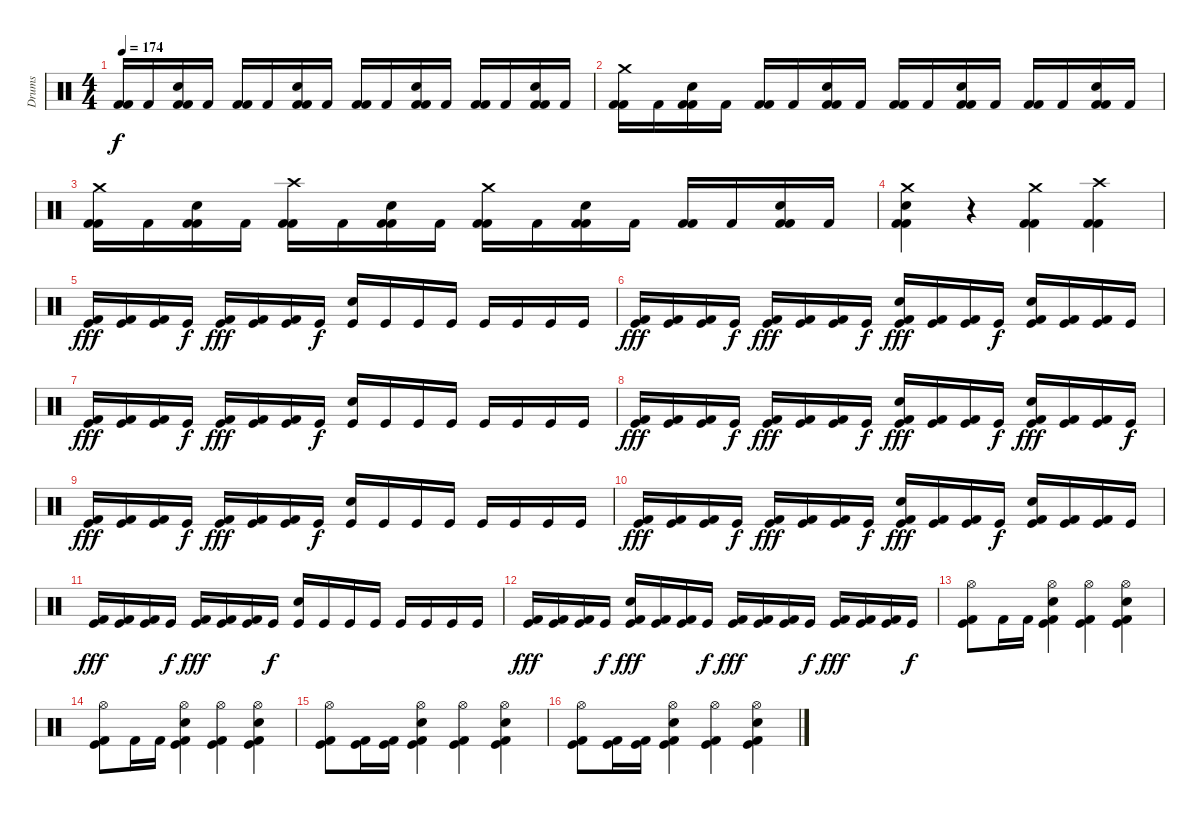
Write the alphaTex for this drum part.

\track ("Drums" "Drums") {instrument percussion}
\staff {score}
\articulation defaults
\ts (4 4)
\tempo 174
\clef neutral
\ks c
("Kick (hit) 2" "Kick (hit) 2").16{dy f} "Kick (hit) 2".16 ("Kick (hit) 2" "Kick (hit) 2" "Electric Snare (hit)").16 "Kick (hit) 2".16 ("Kick (hit) 2" "Kick (hit) 2").16 "Kick (hit) 2".16 ("Kick (hit) 2" "Kick (hit) 2" "Electric Snare (hit)").16 "Kick (hit) 2".16 ("Kick (hit) 2" "Kick (hit) 2").16 "Kick (hit) 2".16 ("Kick (hit) 2" "Kick (hit) 2" "Electric Snare (hit)").16 "Kick (hit) 2".16 ("Kick (hit) 2" "Kick (hit) 2").16 "Kick (hit) 2".16 ("Kick (hit) 2" "Kick (hit) 2" "Electric Snare (hit)").16 "Kick (hit) 2".16 |
("Kick (hit) 2" "Kick (hit) 2" "Crash medium (hit)").16 "Kick (hit) 2".16 ("Kick (hit) 2" "Kick (hit) 2" "Electric Snare (hit)").16 "Kick (hit) 2".16 ("Kick (hit) 2" "Kick (hit) 2").16 "Kick (hit) 2".16 ("Kick (hit) 2" "Kick (hit) 2" "Electric Snare (hit)").16 "Kick (hit) 2".16 ("Kick (hit) 2" "Kick (hit) 2").16 "Kick (hit) 2".16 ("Kick (hit) 2" "Kick (hit) 2" "Electric Snare (hit)").16 "Kick (hit) 2".16 ("Kick (hit) 2" "Kick (hit) 2").16 "Kick (hit) 2".16 ("Kick (hit) 2" "Kick (hit) 2" "Electric Snare (hit)").16 "Kick (hit) 2".16 |
("Kick (hit) 2" "Kick (hit) 2" "Crash medium (hit)").16 "Kick (hit) 2".16 ("Kick (hit) 2" "Kick (hit) 2" "Electric Snare (hit)").16 "Kick (hit) 2".16 ("Kick (hit) 2" "Kick (hit) 2" "Crash high (hit)").16 "Kick (hit) 2".16 ("Kick (hit) 2" "Kick (hit) 2" "Electric Snare (hit)").16 "Kick (hit) 2".16 ("Kick (hit) 2" "Kick (hit) 2" "Crash medium (hit)").16 "Kick (hit) 2".16 ("Kick (hit) 2" "Kick (hit) 2" "Electric Snare (hit)").16 "Kick (hit) 2".16 ("Kick (hit) 2" "Kick (hit) 2").16 "Kick (hit) 2".16 ("Kick (hit) 2" "Kick (hit) 2" "Electric Snare (hit)").16 "Kick (hit) 2".16 |
("Kick (hit) 2" "Kick (hit) 2" "Electric Snare (hit)" "Crash medium (hit)").4 r.4 ("Kick (hit) 2" "Kick (hit) 2" "Crash medium (hit)").4 ("Kick (hit) 2" "Kick (hit) 2" "Crash high (hit)").4 |
("Kick (hit)" "Kick (hit) 2").16{dy fff} ("Kick (hit)" "Kick (hit) 2").16 ("Kick (hit)" "Kick (hit) 2").16 "Kick (hit)".16{dy f} ("Kick (hit)" "Kick (hit) 2").16{dy fff} ("Kick (hit)" "Kick (hit) 2").16 ("Kick (hit)" "Kick (hit) 2").16 "Kick (hit)".16{dy f} ("Kick (hit)" "Electric Snare (hit)").16 "Kick (hit)".16 "Kick (hit)".16 "Kick (hit)".16 "Kick (hit)".16 "Kick (hit)".16 "Kick (hit)".16 "Kick (hit)".16 |
("Kick (hit)" "Kick (hit) 2").16{dy fff} ("Kick (hit)" "Kick (hit) 2").16 ("Kick (hit)" "Kick (hit) 2").16 "Kick (hit)".16{dy f} ("Kick (hit)" "Kick (hit) 2").16{dy fff} ("Kick (hit)" "Kick (hit) 2").16 ("Kick (hit)" "Kick (hit) 2").16 "Kick (hit)".16{dy f} ("Kick (hit)" "Kick (hit) 2" "Electric Snare (hit)").16{dy fff} ("Kick (hit)" "Kick (hit) 2").16 ("Kick (hit)" "Kick (hit) 2").16 "Kick (hit)".16{dy f} ("Kick (hit)" "Kick (hit) 2" "Electric Snare (hit)").16 ("Kick (hit)" "Kick (hit) 2").16 ("Kick (hit)" "Kick (hit) 2").16 "Kick (hit)".16 |
("Kick (hit)" "Kick (hit) 2").16{dy fff} ("Kick (hit)" "Kick (hit) 2").16 ("Kick (hit)" "Kick (hit) 2").16 "Kick (hit)".16{dy f} ("Kick (hit)" "Kick (hit) 2").16{dy fff} ("Kick (hit)" "Kick (hit) 2").16 ("Kick (hit)" "Kick (hit) 2").16 "Kick (hit)".16{dy f} ("Kick (hit)" "Electric Snare (hit)").16 "Kick (hit)".16 "Kick (hit)".16 "Kick (hit)".16 "Kick (hit)".16 "Kick (hit)".16 "Kick (hit)".16 "Kick (hit)".16 |
("Kick (hit)" "Kick (hit) 2").16{dy fff} ("Kick (hit)" "Kick (hit) 2").16 ("Kick (hit)" "Kick (hit) 2").16 "Kick (hit)".16{dy f} ("Kick (hit)" "Kick (hit) 2").16{dy fff} ("Kick (hit)" "Kick (hit) 2").16 ("Kick (hit)" "Kick (hit) 2").16 "Kick (hit)".16{dy f} ("Kick (hit)" "Kick (hit) 2" "Electric Snare (hit)").16{dy fff} ("Kick (hit)" "Kick (hit) 2").16 ("Kick (hit)" "Kick (hit) 2").16 "Kick (hit)".16{dy f} ("Kick (hit)" "Kick (hit) 2" "Electric Snare (hit)").16{dy fff} ("Kick (hit)" "Kick (hit) 2").16 ("Kick (hit)" "Kick (hit) 2").16 "Kick (hit)".16{dy f} |
("Kick (hit)" "Kick (hit) 2").16{dy fff} ("Kick (hit)" "Kick (hit) 2").16 ("Kick (hit)" "Kick (hit) 2").16 "Kick (hit)".16{dy f} ("Kick (hit)" "Kick (hit) 2").16{dy fff} ("Kick (hit)" "Kick (hit) 2").16 ("Kick (hit)" "Kick (hit) 2").16 "Kick (hit)".16{dy f} ("Kick (hit)" "Electric Snare (hit)").16 "Kick (hit)".16 "Kick (hit)".16 "Kick (hit)".16 "Kick (hit)".16 "Kick (hit)".16 "Kick (hit)".16 "Kick (hit)".16 |
("Kick (hit)" "Kick (hit) 2").16{dy fff} ("Kick (hit)" "Kick (hit) 2").16 ("Kick (hit)" "Kick (hit) 2").16 "Kick (hit)".16{dy f} ("Kick (hit)" "Kick (hit) 2").16{dy fff} ("Kick (hit)" "Kick (hit) 2").16 ("Kick (hit)" "Kick (hit) 2").16 "Kick (hit)".16{dy f} ("Kick (hit)" "Kick (hit) 2" "Electric Snare (hit)").16{dy fff} ("Kick (hit)" "Kick (hit) 2").16 ("Kick (hit)" "Kick (hit) 2").16 "Kick (hit)".16{dy f} ("Kick (hit)" "Kick (hit) 2" "Electric Snare (hit)").16 ("Kick (hit)" "Kick (hit) 2").16 ("Kick (hit)" "Kick (hit) 2").16 "Kick (hit)".16 |
("Kick (hit)" "Kick (hit) 2").16{dy fff} ("Kick (hit)" "Kick (hit) 2").16 ("Kick (hit)" "Kick (hit) 2").16 "Kick (hit)".16{dy f} ("Kick (hit)" "Kick (hit) 2").16{dy fff} ("Kick (hit)" "Kick (hit) 2").16 ("Kick (hit)" "Kick (hit) 2").16 "Kick (hit)".16{dy f} ("Kick (hit)" "Electric Snare (hit)").16 "Kick (hit)".16 "Kick (hit)".16 "Kick (hit)".16 "Kick (hit)".16 "Kick (hit)".16 "Kick (hit)".16 "Kick (hit)".16 |
("Kick (hit)" "Kick (hit) 2").16{dy fff} ("Kick (hit)" "Kick (hit) 2").16 ("Kick (hit)" "Kick (hit) 2").16 "Kick (hit)".16{dy f} ("Kick (hit)" "Kick (hit) 2" "Electric Snare (hit)").16{dy fff} ("Kick (hit)" "Kick (hit) 2").16 ("Kick (hit)" "Kick (hit) 2").16 "Kick (hit)".16{dy f} ("Kick (hit)" "Kick (hit) 2").16{dy fff} ("Kick (hit)" "Kick (hit) 2").16 ("Kick (hit)" "Kick (hit) 2").16 "Kick (hit)".16{dy f} ("Kick (hit)" "Kick (hit) 2").16{dy fff} ("Kick (hit)" "Kick (hit) 2").16 ("Kick (hit)" "Kick (hit) 2").16 "Kick (hit)".16{dy f} |
("Kick (hit)" "Kick (hit) 2" "Hi-Hat (open)").8 "Kick (hit) 2".16 "Kick (hit) 2".16 ("Kick (hit)" "Kick (hit) 2" "Electric Snare (hit)" "Hi-Hat (open)").4 ("Kick (hit)" "Kick (hit) 2" "Hi-Hat (open)").4 ("Kick (hit)" "Kick (hit) 2" "Electric Snare (hit)" "Hi-Hat (open)").4 |
("Kick (hit)" "Kick (hit) 2" "Hi-Hat (open)").8 "Kick (hit) 2".16 "Kick (hit) 2".16 ("Kick (hit)" "Kick (hit) 2" "Electric Snare (hit)" "Hi-Hat (open)").4 ("Kick (hit)" "Kick (hit) 2" "Hi-Hat (open)").4 ("Kick (hit)" "Kick (hit) 2" "Electric Snare (hit)" "Hi-Hat (open)").4 |
("Kick (hit)" "Kick (hit) 2" "Hi-Hat (open)").8 ("Kick (hit)" "Kick (hit) 2").16 ("Kick (hit)" "Kick (hit) 2").16 ("Kick (hit)" "Kick (hit) 2" "Electric Snare (hit)" "Hi-Hat (open)").4 ("Kick (hit)" "Kick (hit) 2" "Hi-Hat (open)").4 ("Kick (hit)" "Kick (hit) 2" "Electric Snare (hit)" "Hi-Hat (open)").4 |
("Kick (hit)" "Kick (hit) 2" "Hi-Hat (open)").8 ("Kick (hit)" "Kick (hit) 2").16 ("Kick (hit)" "Kick (hit) 2").16 ("Kick (hit)" "Kick (hit) 2" "Electric Snare (hit)" "Hi-Hat (open)").4 ("Kick (hit)" "Kick (hit) 2" "Hi-Hat (open)").4 ("Kick (hit)" "Kick (hit) 2" "Electric Snare (hit)" "Hi-Hat (open)").4
